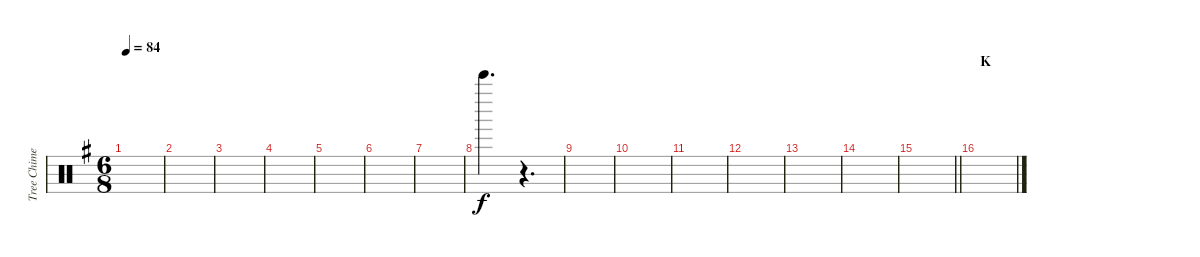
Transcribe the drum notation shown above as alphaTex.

\track ("Tree Chime" "Tree Chime") {instrument percussion}
\staff {score}
\articulation defaults
\ts (6 8)
\tempo 84
\clef neutral
\ks g
|
|
|
|
|
|
|
"Bell Tree (hit)".4{d} r.4{d} |
|
|
|
|
|
|
\barLineRight lightlight
|
\section ("" "K")
